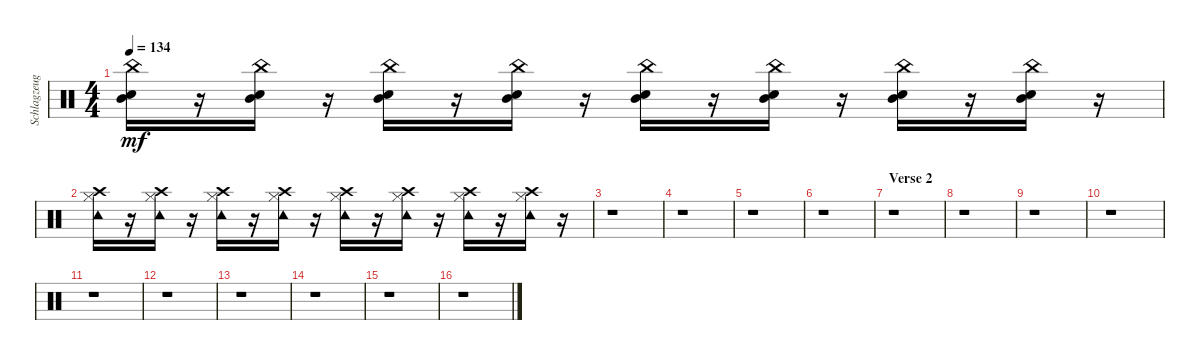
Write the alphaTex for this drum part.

\track ("Schlagzeug - Bela B." "Schlagzeug") {instrument percussion}
\staff {score}
\articulation defaults
\ts (4 4)
\tempo 134
\clef neutral
\ks c
("Electric Snare (hit)" "Mid Tom (hit)" "China (hit)").16{dy mf} r.16 ("Electric Snare (hit)" "Mid Tom (hit)" "China (hit)").16 r.16 ("Electric Snare (hit)" "Mid Tom (hit)" "China (hit)").16 r.16 ("Electric Snare (hit)" "Mid Tom (hit)" "China (hit)").16 r.16 ("Electric Snare (hit)" "Mid Tom (hit)" "China (hit)").16 r.16 ("Electric Snare (hit)" "Mid Tom (hit)" "China (hit)").16 r.16 ("Electric Snare (hit)" "Mid Tom (hit)" "China (hit)").16 r.16 ("Electric Snare (hit)" "Mid Tom (hit)" "China (hit)").16 r.16 |
("Hi-Hat (closed)" "Crash high (hit)" "Tambourine (hit)").16 r.16 ("Hi-Hat (closed)" "Crash high (hit)" "Tambourine (hit)").16 r.16 ("Hi-Hat (closed)" "Crash high (hit)" "Tambourine (hit)").16 r.16 ("Hi-Hat (closed)" "Crash high (hit)" "Tambourine (hit)").16 r.16 ("Hi-Hat (closed)" "Crash high (hit)" "Tambourine (hit)").16 r.16 ("Hi-Hat (closed)" "Crash high (hit)" "Tambourine (hit)").16 r.16 ("Hi-Hat (closed)" "Crash high (hit)" "Tambourine (hit)").16 r.16 ("Hi-Hat (closed)" "Crash high (hit)" "Tambourine (hit)").16 r.16 |
r.1 |
r.1 |
r.1 |
r.1 |
\section ("" "Verse 2")
r.1 |
r.1 |
r.1 |
r.1 |
r.1 |
r.1 |
r.1 |
r.1 |
r.1 |
r.1
